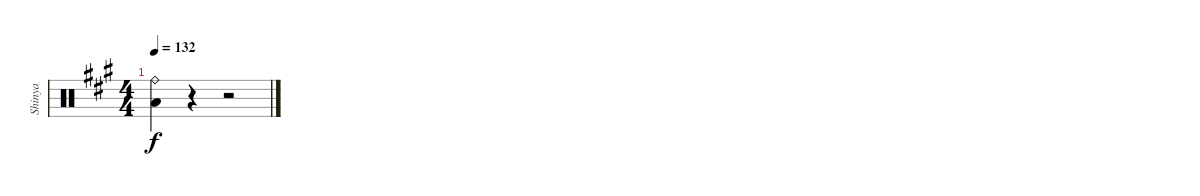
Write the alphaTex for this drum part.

\track ("Shinya" "Shinya") {instrument percussion}
\staff {score}
\articulation defaults
\ts (4 4)
\tempo 132
\clef neutral
\ks a
("Low Floor Tom (hit)" "Ride (bell)").4{dy f} r.4 r.2
